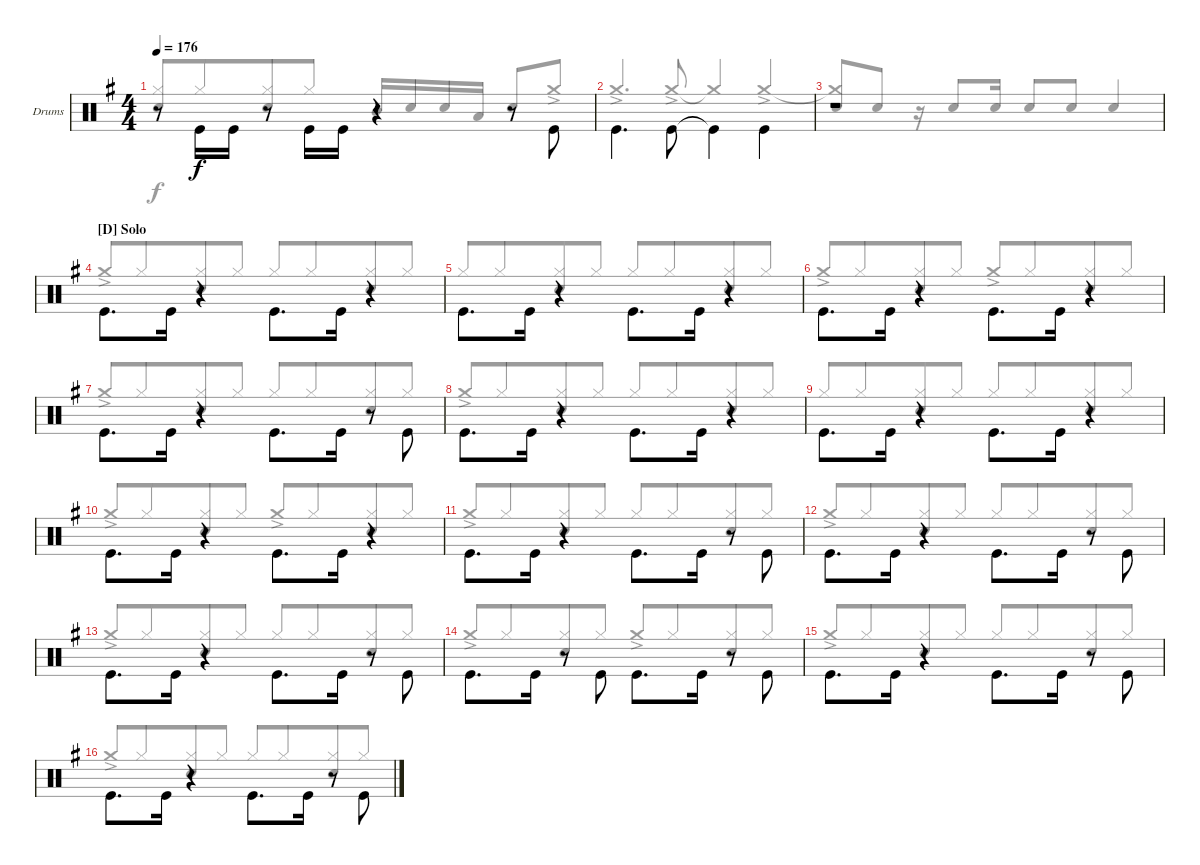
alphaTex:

\bracketExtendMode groupsimilarinstruments
\firstSystemTrackNameOrientation horizontal
\otherSystemsTrackNameOrientation horizontal
\track ("Drums" "Drums") {instrument percussion}
\staff {score}
\articulation defaults
\voice
\ts (4 4)
\tempo 176
\clef neutral
\scale
1.04288
\ks g
r.8{dy f} "Kick (hit)".16{beam invert} "Kick (hit)".16 r.8 "Kick (hit)".16{beam invert} "Kick (hit)".16 r.4 r.8 "Kick (hit)".8{beam invert} |
\scale
0.957125 "Kick (hit)".4{d beam invert} "Kick (hit)".8{beam invert} "Kick (hit)"{t}.4{beam invert} "Kick (hit)".4{beam invert} |
\scale
1.04288 r.1 |
\section ("D" "Solo")
\scale
0.957125 "Kick (hit)".8{d beam invert} "Kick (hit)".16 r.4 "Kick (hit)".8{d beam invert} "Kick (hit)".16 r.4 |
\scale
1.04288 "Kick (hit)".8{d beam invert} "Kick (hit)".16 r.4 "Kick (hit)".8{d beam invert} "Kick (hit)".16 r.4 |
\scale
0.957125 "Kick (hit)".8{d beam invert} "Kick (hit)".16 r.4 "Kick (hit)".8{d beam invert} "Kick (hit)".16 r.4 |
\scale
1.04288 "Kick (hit)".8{d beam invert} "Kick (hit)".16 r.4 "Kick (hit)".8{d beam invert} "Kick (hit)".16 r.8 "Kick (hit)".8{beam invert} |
\scale
0.957125 "Kick (hit)".8{d beam invert} "Kick (hit)".16 r.4 "Kick (hit)".8{d beam invert} "Kick (hit)".16 r.4 |
\scale
1.04288 "Kick (hit)".8{d beam invert} "Kick (hit)".16 r.4 "Kick (hit)".8{d beam invert} "Kick (hit)".16 r.4 |
\scale
0.957125 "Kick (hit)".8{d beam invert} "Kick (hit)".16 r.4 "Kick (hit)".8{d beam invert} "Kick (hit)".16 r.4 |
\scale
1.04288 "Kick (hit)".8{d beam invert} "Kick (hit)".16 r.4 "Kick (hit)".8{d beam invert} "Kick (hit)".16 r.8 "Kick (hit)".8{beam invert} |
\scale
0.957125 "Kick (hit)".8{d beam invert} "Kick (hit)".16 r.4 "Kick (hit)".8{d beam invert} "Kick (hit)".16 r.8 "Kick (hit)".8{beam invert} |
\scale
1.04288 "Kick (hit)".8{d beam invert} "Kick (hit)".16 r.4 "Kick (hit)".8{d beam invert} "Kick (hit)".16 r.8 "Kick (hit)".8{beam invert} |
\scale
0.957125 "Kick (hit)".8{d beam invert} "Kick (hit)".16 r.8 "Kick (hit)".8{beam invert} "Kick (hit)".8{d beam invert} "Kick (hit)".16 r.8 "Kick (hit)".8{beam invert} |
\scale
1.04288 "Kick (hit)".8{d beam invert} "Kick (hit)".16 r.4 "Kick (hit)".8{d beam invert} "Kick (hit)".16 r.8 "Kick (hit)".8{beam invert} |
\scale
0.957125 "Kick (hit)".8{d beam invert} "Kick (hit)".16 r.4 "Kick (hit)".8{d beam invert} "Kick (hit)".16 r.8 "Kick (hit)".8{beam invert}
\voice
\clef neutral
\ottava regular
\simile none
\scale
1.04288
\ks g
("Hi-Hat (closed)" "Snare (hit) 2").8{dy f beam invert} "Hi-Hat (closed)".8{beam merge} ("Hi-Hat (closed)" "Snare (hit) 2").8{beam merge} "Hi-Hat (closed)".8{beam split} "Mid Tom (hit)".16{beam invert} "Snare (hit) 2".16 "Snare (hit) 2".16 "Low Tom (hit)".16 "Snare (hit) 2".8{beam invert} "Crash medium (hit)"{ac}.8 |
\scale
0.957125 "Crash medium (hit)"{ac}.4{d beam invert} "Crash medium (hit)"{ac}.8{beam invert} "Crash medium (hit)"{t}.4{beam invert} "Crash medium (hit)"{ac}.4{beam invert} |
\scale
1.04288 ("Crash medium (hit)"{t} "Snare (hit) 2").8{beam invert} "Snare (hit) 2".8 r.16 "Snare (hit) 2".8{beam invert} "Snare (hit) 2".16 "Snare (hit) 2".8{beam invert} "Snare (hit) 2".8 "Snare (hit) 2".4{beam invert} |
\scale
0.957125 "Crash medium (hit)"{ac}.8{beam invert} "Hi-Hat (closed)".8{beam merge} ("Hi-Hat (closed)" "Snare (hit) 2").8{beam merge} "Hi-Hat (closed)".8{beam split} "Hi-Hat (closed)".8{beam invert} "Hi-Hat (closed)".8{beam merge} ("Hi-Hat (closed)" "Snare (hit) 2").8{beam merge} "Hi-Hat (closed)".8{beam split} |
\scale
1.04288 "Hi-Hat (closed)".8{beam invert} "Hi-Hat (closed)".8{beam merge} ("Hi-Hat (closed)" "Snare (hit) 2").8{beam merge} "Hi-Hat (closed)".8{beam split} "Hi-Hat (closed)".8{beam invert} "Hi-Hat (closed)".8{beam merge} ("Hi-Hat (closed)" "Snare (hit) 2").8{beam merge} "Hi-Hat (closed)".8{beam split} |
\scale
0.957125 "Crash medium (hit)"{ac}.8{beam invert} "Hi-Hat (closed)".8{beam merge} ("Hi-Hat (closed)" "Snare (hit) 2").8{beam merge} "Hi-Hat (closed)".8{beam split} "Crash medium (hit)"{ac}.8{beam invert} "Hi-Hat (closed)".8{beam merge} ("Hi-Hat (closed)" "Snare (hit) 2").8{beam merge} "Hi-Hat (closed)".8{beam split} |
\scale
1.04288 "Crash medium (hit)"{ac}.8{beam invert} "Hi-Hat (closed)".8{beam merge} ("Hi-Hat (closed)" "Snare (hit) 2").8{beam merge} "Hi-Hat (closed)".8{beam split} "Hi-Hat (closed)".8{beam invert} "Hi-Hat (closed)".8{beam merge} ("Hi-Hat (closed)" "Snare (hit) 2").8{beam merge} "Hi-Hat (closed)".8{beam split} |
\scale
0.957125 "Crash medium (hit)"{ac}.8{beam invert} "Hi-Hat (closed)".8{beam merge} ("Hi-Hat (closed)" "Snare (hit) 2").8{beam merge} "Hi-Hat (closed)".8{beam split} "Hi-Hat (closed)".8{beam invert} "Hi-Hat (closed)".8{beam merge} ("Hi-Hat (closed)" "Snare (hit) 2").8{beam merge} "Hi-Hat (closed)".8{beam split} |
\scale
1.04288 "Hi-Hat (closed)".8{beam invert} "Hi-Hat (closed)".8{beam merge} ("Hi-Hat (closed)" "Snare (hit) 2").8{beam merge} "Hi-Hat (closed)".8{beam split} "Hi-Hat (closed)".8{beam invert} "Hi-Hat (closed)".8{beam merge} ("Hi-Hat (closed)" "Snare (hit) 2").8{beam merge} "Hi-Hat (closed)".8{beam split} |
\scale
0.957125 "Crash medium (hit)"{ac}.8{beam invert} "Hi-Hat (closed)".8{beam merge} ("Hi-Hat (closed)" "Snare (hit) 2").8{beam merge} "Hi-Hat (closed)".8{beam split} "Crash medium (hit)"{ac}.8{beam invert} "Hi-Hat (closed)".8{beam merge} ("Hi-Hat (closed)" "Snare (hit) 2").8{beam merge} "Hi-Hat (closed)".8{beam split} |
\scale
1.04288 "Crash medium (hit)"{ac}.8{beam invert} "Hi-Hat (closed)".8{beam merge} ("Hi-Hat (closed)" "Snare (hit) 2").8{beam merge} "Hi-Hat (closed)".8{beam split} "Hi-Hat (closed)".8{beam invert} "Hi-Hat (closed)".8{beam merge} ("Hi-Hat (closed)" "Snare (hit) 2").8{beam merge} "Hi-Hat (closed)".8{beam split} |
\scale
0.957125 "Crash medium (hit)"{ac}.8{beam invert} "Hi-Hat (closed)".8{beam merge} ("Hi-Hat (closed)" "Snare (hit) 2").8{beam merge} "Hi-Hat (closed)".8{beam split} "Hi-Hat (closed)".8{beam invert} "Hi-Hat (closed)".8{beam merge} ("Hi-Hat (closed)" "Snare (hit) 2").8{beam merge} "Hi-Hat (closed)".8{beam split} |
\scale
1.04288 "Crash medium (hit)"{ac}.8{beam invert} "Hi-Hat (closed)".8{beam merge} ("Hi-Hat (closed)" "Snare (hit) 2").8{beam merge} "Hi-Hat (closed)".8{beam split} "Hi-Hat (closed)".8{beam invert} "Hi-Hat (closed)".8{beam merge} ("Hi-Hat (closed)" "Snare (hit) 2").8{beam merge} "Hi-Hat (closed)".8{beam split} |
\scale
0.957125 "Crash medium (hit)"{ac}.8{beam invert} "Hi-Hat (closed)".8{beam merge} ("Hi-Hat (closed)" "Snare (hit) 2").8{beam merge} "Hi-Hat (closed)".8{beam split} "Crash medium (hit)"{ac}.8{beam invert} "Hi-Hat (closed)".8{beam merge} ("Hi-Hat (closed)" "Snare (hit) 2").8{beam merge} "Hi-Hat (closed)".8{beam split} |
\scale
1.04288 "Crash medium (hit)"{ac}.8{beam invert} "Hi-Hat (closed)".8{beam merge} ("Hi-Hat (closed)" "Snare (hit) 2").8{beam merge} "Hi-Hat (closed)".8{beam split} "Hi-Hat (closed)".8{beam invert} "Hi-Hat (closed)".8{beam merge} ("Hi-Hat (closed)" "Snare (hit) 2").8{beam merge} "Hi-Hat (closed)".8{beam split} |
\scale
0.957125 "Crash medium (hit)"{ac}.8{beam invert} "Hi-Hat (closed)".8{beam merge} ("Hi-Hat (closed)" "Snare (hit) 2").8{beam merge} "Hi-Hat (closed)".8{beam split} "Hi-Hat (closed)".8{beam invert} "Hi-Hat (closed)".8{beam merge} ("Hi-Hat (closed)" "Snare (hit) 2").8{beam merge} "Hi-Hat (closed)".8{beam split}
